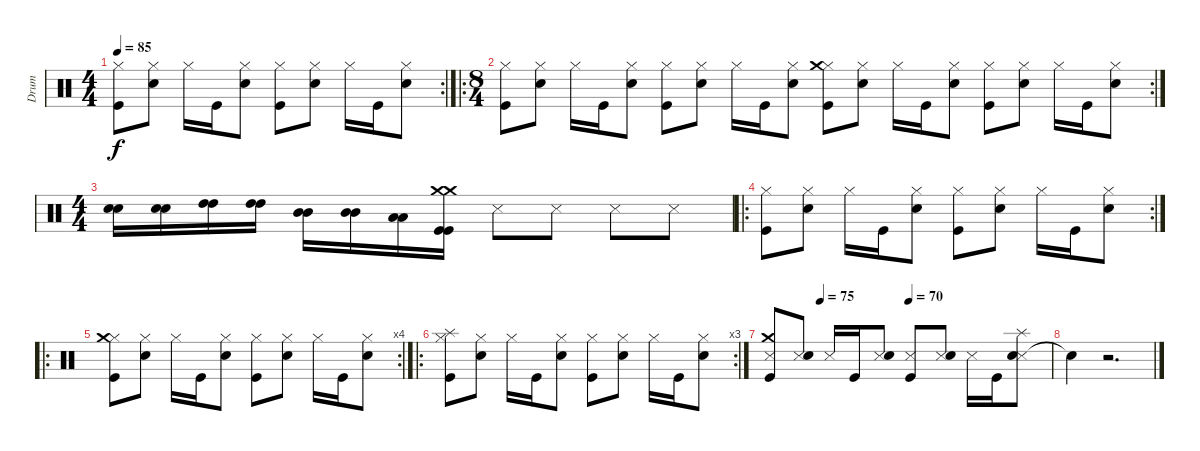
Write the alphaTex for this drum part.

\track ("Drum" "Drum") {instrument percussion}
\staff {score}
\articulation defaults
\rc 2
\ts (4 4)
\tempo 85
\clef neutral
\ks c
("Hi-Hat (closed)" "Kick (hit)").8{dy f} ("Hi-Hat (closed)" "Snare (hit) 2").8 "Hi-Hat (closed)".16 "Kick (hit)".16 ("Hi-Hat (closed)" "Snare (hit) 2").8 ("Hi-Hat (closed)" "Kick (hit)").8 ("Hi-Hat (closed)" "Snare (hit) 2").8 "Hi-Hat (closed)".16 "Kick (hit)".16 ("Hi-Hat (closed)" "Snare (hit) 2").8 |
\ro
\rc 2
\ts (8 4)
("Hi-Hat (closed)" "Kick (hit)").8 ("Hi-Hat (closed)" "Snare (hit) 2").8 "Hi-Hat (closed)".16 "Kick (hit)".16 ("Hi-Hat (closed)" "Snare (hit) 2").8 ("Hi-Hat (closed)" "Kick (hit)").8 ("Hi-Hat (closed)" "Snare (hit) 2").8 "Hi-Hat (closed)".16 "Kick (hit)".16 ("Hi-Hat (closed)" "Snare (hit) 2").8 ("Hi-Hat (closed)" "Kick (hit)" "Crash medium (hit)").8 ("Hi-Hat (closed)" "Snare (hit) 2").8 "Hi-Hat (closed)".16 "Kick (hit)".16 ("Hi-Hat (closed)" "Snare (hit) 2").8 ("Hi-Hat (closed)" "Kick (hit)").8 ("Hi-Hat (closed)" "Snare (hit) 2").8 "Hi-Hat (closed)".16 "Kick (hit)".16 ("Hi-Hat (closed)" "Snare (hit) 2").8 |
\ts (4 4)
("Snare (hit) 2" "Snare (hit) 2").16 ("Snare (hit) 2" "Snare (hit) 2").16 ("High Tom (hit)" "High Tom (hit)").16 ("High Tom (hit)" "High Tom (hit)").16 ("Mid Tom (hit)" "Mid Tom (hit)").16 ("Mid Tom (hit)" "Mid Tom (hit)").16 ("Low Tom (hit)" "Low Tom (hit)").16 ("Crash medium (hit)" "Kick (hit)" "Crash medium (hit)" "Kick (hit)").16 "Snare (side stick) 3".8 "Snare (side stick) 3".8 "Snare (side stick) 3".8 "Snare (side stick) 3".8 |
\ro
\rc 2
("Hi-Hat (closed)" "Kick (hit)").8 ("Hi-Hat (closed)" "Snare (hit) 2").8 "Hi-Hat (closed)".16 "Kick (hit)".16 ("Hi-Hat (closed)" "Snare (hit) 2").8 ("Hi-Hat (closed)" "Kick (hit)").8 ("Hi-Hat (closed)" "Snare (hit) 2").8 "Hi-Hat (closed)".16 "Kick (hit)".16 ("Hi-Hat (closed)" "Snare (hit) 2").8 |
\ro
\rc 4
("Hi-Hat (closed)" "Kick (hit)" "Crash medium (hit)").8 ("Hi-Hat (closed)" "Snare (hit) 2").8 "Hi-Hat (closed)".16 "Kick (hit)".16 ("Hi-Hat (closed)" "Snare (hit) 2").8 ("Hi-Hat (closed)" "Kick (hit)").8 ("Hi-Hat (closed)" "Snare (hit) 2").8 "Hi-Hat (closed)".16 "Kick (hit)".16 ("Hi-Hat (closed)" "Snare (hit) 2").8 |
\ro
\rc 3
("Hi-Hat (closed)" "Kick (hit)" "Splash (hit)").8 ("Hi-Hat (closed)" "Snare (hit) 2").8 "Hi-Hat (closed)".16 "Kick (hit)".16 ("Hi-Hat (closed)" "Snare (hit) 2").8 ("Hi-Hat (closed)" "Kick (hit)").8 ("Hi-Hat (closed)" "Snare (hit) 2").8 "Hi-Hat (closed)".16 "Kick (hit)".16 ("Hi-Hat (closed)" "Snare (hit) 2").8 |
\tempo (75 0.1875)
\tempo (70 0.5)
("Snare (side stick) 3" "Kick (hit)" "Crash medium (hit)").8 ("Snare (side stick) 3" "Snare (hit) 2").8 "Snare (side stick) 3".16 "Kick (hit)".16 ("Snare (side stick) 3" "Snare (hit) 2").8 ("Snare (side stick) 3" "Kick (hit)").8 ("Snare (side stick) 3" "Snare (hit) 2").8 "Snare (side stick) 3".16 "Kick (hit)".16 ("Snare (side stick) 3" "Snare (hit) 2" "Splash (hit)").8 |
"Snare (hit)"{t}.4 r.2{d}
